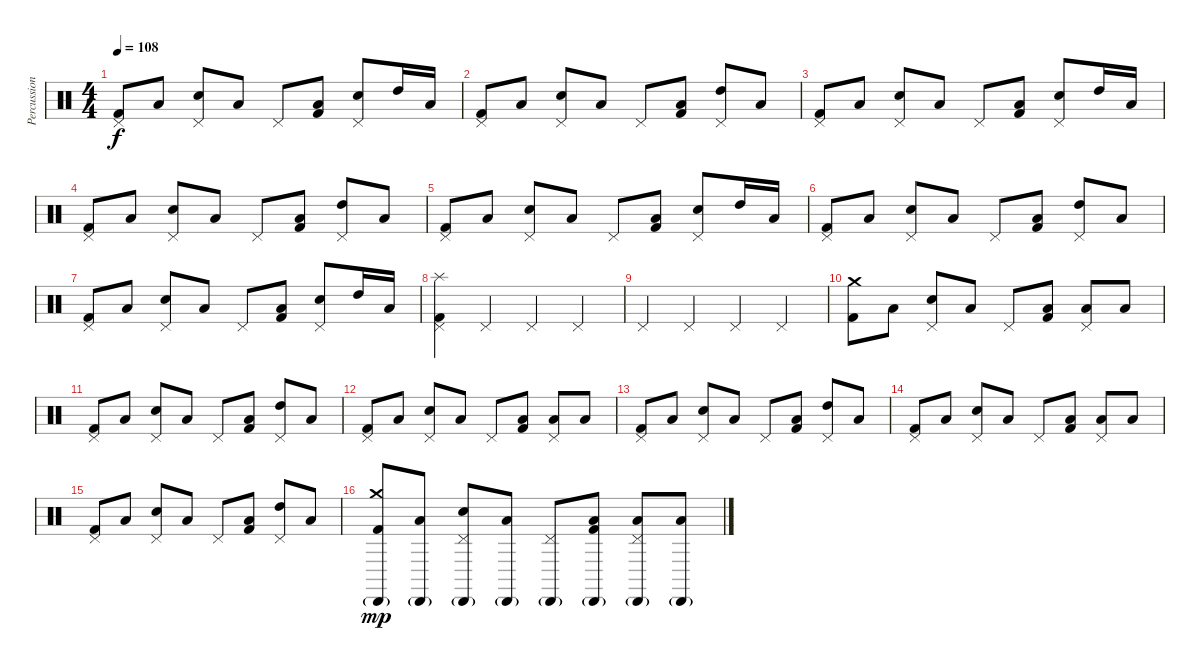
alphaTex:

\track ("Percussion" "Percussion") {instrument percussion}
\staff {score}
\articulation defaults
\ts (4 4)
\tempo 108
\clef neutral
\ks c
("Pedal Hi-Hat (hit)" "Kick (hit) 2").8{dy f} "Low Tom (hit)".8 ("Pedal Hi-Hat (hit)" "Snare (hit) 2").8 "Low Tom (hit)".8 "Pedal Hi-Hat (hit)".8 ("Low Tom (hit)" "Kick (hit) 2").8 ("Pedal Hi-Hat (hit)" "Snare (hit) 2").8 "High Tom (hit)".16 "Low Tom (hit)".16 |
("Pedal Hi-Hat (hit)" "Kick (hit) 2").8 "Low Tom (hit)".8 ("Pedal Hi-Hat (hit)" "Snare (hit) 2").8 "Low Tom (hit)".8 "Pedal Hi-Hat (hit)".8 ("Low Tom (hit)" "Kick (hit) 2").8 ("Pedal Hi-Hat (hit)" "High Tom (hit)").8 "Low Tom (hit)".8 |
("Pedal Hi-Hat (hit)" "Kick (hit) 2").8 "Low Tom (hit)".8 ("Pedal Hi-Hat (hit)" "Snare (hit) 2").8 "Low Tom (hit)".8 "Pedal Hi-Hat (hit)".8 ("Low Tom (hit)" "Kick (hit) 2").8 ("Pedal Hi-Hat (hit)" "Snare (hit) 2").8 "High Tom (hit)".16 "Low Tom (hit)".16 |
("Pedal Hi-Hat (hit)" "Kick (hit) 2").8 "Low Tom (hit)".8 ("Pedal Hi-Hat (hit)" "Snare (hit) 2").8 "Low Tom (hit)".8 "Pedal Hi-Hat (hit)".8 ("Low Tom (hit)" "Kick (hit) 2").8 ("Pedal Hi-Hat (hit)" "High Tom (hit)").8 "Low Tom (hit)".8 |
("Pedal Hi-Hat (hit)" "Kick (hit) 2").8 "Low Tom (hit)".8 ("Pedal Hi-Hat (hit)" "Snare (hit) 2").8 "Low Tom (hit)".8 "Pedal Hi-Hat (hit)".8 ("Low Tom (hit)" "Kick (hit) 2").8 ("Pedal Hi-Hat (hit)" "Snare (hit) 2").8 "High Tom (hit)".16 "Low Tom (hit)".16 |
("Pedal Hi-Hat (hit)" "Kick (hit) 2").8 "Low Tom (hit)".8 ("Pedal Hi-Hat (hit)" "Snare (hit) 2").8 "Low Tom (hit)".8 "Pedal Hi-Hat (hit)".8 ("Low Tom (hit)" "Kick (hit) 2").8 ("Pedal Hi-Hat (hit)" "High Tom (hit)").8 "Low Tom (hit)".8 |
("Pedal Hi-Hat (hit)" "Kick (hit) 2").8 "Low Tom (hit)".8 ("Pedal Hi-Hat (hit)" "Snare (hit) 2").8 "Low Tom (hit)".8 "Pedal Hi-Hat (hit)".8 ("Low Tom (hit)" "Kick (hit) 2").8 ("Pedal Hi-Hat (hit)" "Snare (hit) 2").8 "High Tom (hit)".16 "Low Tom (hit)".16 |
("Splash (hit)" "Pedal Hi-Hat (hit)" "Kick (hit) 2").4 "Pedal Hi-Hat (hit)".4 "Pedal Hi-Hat (hit)".4 "Pedal Hi-Hat (hit)".4 |
"Pedal Hi-Hat (hit)".4 "Pedal Hi-Hat (hit)".4 "Pedal Hi-Hat (hit)".4 "Pedal Hi-Hat (hit)".4 |
("Crash medium (hit)" "Kick (hit) 2").8 "Low Tom (hit)".8 ("Pedal Hi-Hat (hit)" "Snare (hit) 2").8 "Low Tom (hit)".8 "Pedal Hi-Hat (hit)".8 ("Low Tom (hit)" "Kick (hit) 2").8 ("Pedal Hi-Hat (hit)" "Low Floor Tom (hit)").8 "Low Tom (hit)".8 |
("Pedal Hi-Hat (hit)" "Kick (hit) 2").8 "Low Tom (hit)".8 ("Pedal Hi-Hat (hit)" "Snare (hit) 2").8 "Low Tom (hit)".8 "Pedal Hi-Hat (hit)".8 ("Low Tom (hit)" "Kick (hit) 2").8 ("Pedal Hi-Hat (hit)" "High Tom (hit)").8 "Low Tom (hit)".8 |
("Pedal Hi-Hat (hit)" "Kick (hit) 2").8 "Low Tom (hit)".8 ("Pedal Hi-Hat (hit)" "Snare (hit) 2").8 "Low Tom (hit)".8 "Pedal Hi-Hat (hit)".8 ("Low Tom (hit)" "Kick (hit) 2").8 ("Pedal Hi-Hat (hit)" "Low Floor Tom (hit)").8 "Low Tom (hit)".8 |
("Pedal Hi-Hat (hit)" "Kick (hit) 2").8 "Low Tom (hit)".8 ("Pedal Hi-Hat (hit)" "Snare (hit) 2").8 "Low Tom (hit)".8 "Pedal Hi-Hat (hit)".8 ("Low Tom (hit)" "Kick (hit) 2").8 ("Pedal Hi-Hat (hit)" "High Tom (hit)").8 "Low Tom (hit)".8 |
("Pedal Hi-Hat (hit)" "Kick (hit) 2").8 "Low Tom (hit)".8 ("Pedal Hi-Hat (hit)" "Snare (hit) 2").8 "Low Tom (hit)".8 "Pedal Hi-Hat (hit)".8 ("Low Tom (hit)" "Kick (hit) 2").8 ("Pedal Hi-Hat (hit)" "Low Floor Tom (hit)").8 "Low Tom (hit)".8 |
("Pedal Hi-Hat (hit)" "Kick (hit) 2").8 "Low Tom (hit)".8 ("Pedal Hi-Hat (hit)" "Snare (hit) 2").8 "Low Tom (hit)".8 "Pedal Hi-Hat (hit)".8 ("Low Tom (hit)" "Kick (hit) 2").8 ("Pedal Hi-Hat (hit)" "High Tom (hit)").8 "Low Tom (hit)".8 |
("Cabasa (hit)"{g} "Crash medium (hit)" "Kick (hit) 2").8{dy mp} ("Cabasa (hit)"{g} "Low Tom (hit)").8 ("Cabasa (hit)"{g} "Pedal Hi-Hat (hit)" "Snare (hit) 2").8 ("Cabasa (hit)"{g} "Low Tom (hit)").8 ("Cabasa (hit)"{g} "Pedal Hi-Hat (hit)").8 ("Cabasa (hit)"{g} "Low Tom (hit)" "Kick (hit) 2").8 ("Cabasa (hit)"{g} "Pedal Hi-Hat (hit)" "Low Floor Tom (hit)").8 ("Cabasa (hit)"{g} "Low Tom (hit)").8
